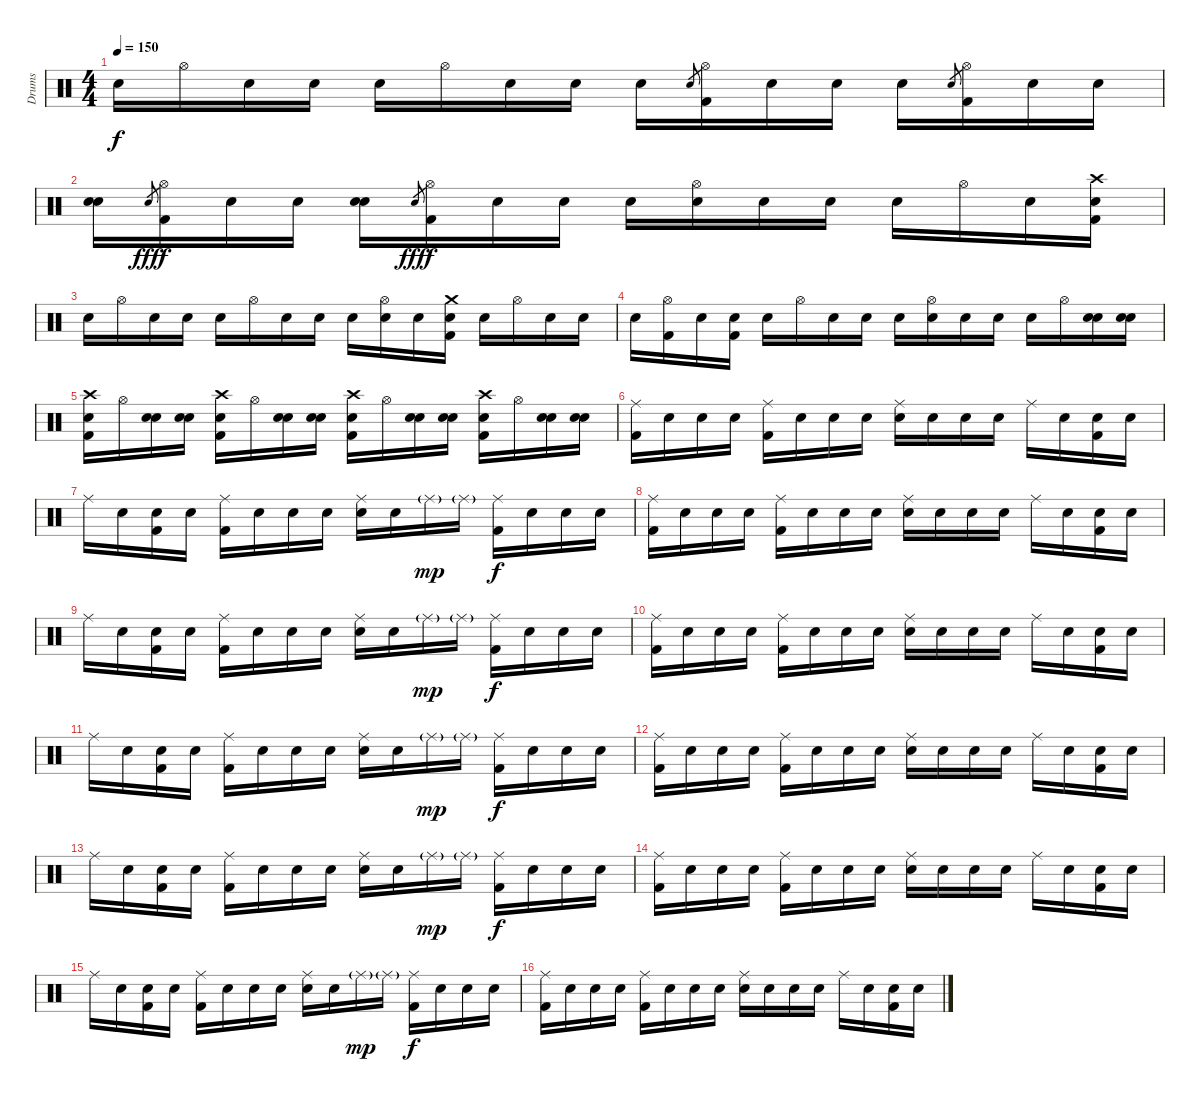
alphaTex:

\track ("Drums" "Drums") {instrument percussion}
\staff {score}
\articulation defaults
\ts (4 4)
\tempo 150
\clef neutral
\ks c "Snare (hit)".16{dy f} "Hi-Hat (open)".16 "Snare (hit)".16 "Snare (hit)".16 "Snare (hit)".16 "Hi-Hat (open)".16 "Snare (hit)".16 "Snare (hit)".16 "Snare (hit)".16 "Electric Snare (hit)".8{gr}
("Hi-Hat (open)" "Kick (hit) 2").16 "Snare (hit)".16 "Snare (hit)".16 "Snare (hit)".16 "Electric Snare (hit)".8{gr} ("Hi-Hat (open)" "Kick (hit) 2").16 "Snare (hit)".16 "Snare (hit)".16 |
("Snare (hit)" "Electric Snare (hit)").16 "Electric Snare (hit)".8{gr dy fff} ("Hi-Hat (open)" "Kick (hit) 2").16{dy f} "Snare (hit)".16 "Snare (hit)".16 ("Snare (hit)" "Electric Snare (hit)").16 "Electric Snare (hit)".8{gr dy fff} ("Hi-Hat (open)" "Kick (hit) 2").16{dy f} "Snare (hit)".16 "Snare (hit)".16 "Snare (hit)".16 ("Hi-Hat (open)" "Electric Snare (hit)").16 "Snare (hit)".16 "Snare (hit)".16 "Snare (hit)".16 "Hi-Hat (open)".16 "Snare (hit)".16 ("Snare (hit)" "Crash high (hit)" "Kick (hit) 2").16 |
"Snare (hit)".16 "Hi-Hat (open)".16 "Snare (hit)".16 "Snare (hit)".16 "Snare (hit)".16 "Hi-Hat (open)".16 "Snare (hit)".16 "Snare (hit)".16 "Snare (hit)".16 ("Hi-Hat (open)" "Electric Snare (hit)").16 "Snare (hit)".16 ("Snare (hit)" "Crash medium (hit)" "Kick (hit) 2").16 "Snare (hit)".16 "Hi-Hat (open)".16 "Snare (hit)".16 "Snare (hit)".16 |
"Snare (hit)".16 ("Hi-Hat (open)" "Kick (hit) 2").16 "Snare (hit)".16 ("Snare (hit)" "Kick (hit) 2").16 "Snare (hit)".16 "Hi-Hat (open)".16 "Snare (hit)".16 "Snare (hit)".16 "Snare (hit)".16 ("Hi-Hat (open)" "Electric Snare (hit)").16 "Snare (hit)".16 "Snare (hit)".16 "Snare (hit)".16 "Hi-Hat (open)".16 ("Snare (hit)" "Electric Snare (hit)").16 ("Snare (hit)" "Electric Snare (hit)").16 |
("Snare (hit)" "Crash high (hit)" "Kick (hit) 2").16 "Hi-Hat (open)".16 ("Snare (hit)" "Electric Snare (hit)").16 ("Snare (hit)" "Electric Snare (hit)").16 ("Snare (hit)" "Crash high (hit)" "Kick (hit) 2").16 "Hi-Hat (open)".16 ("Snare (hit)" "Electric Snare (hit)").16 ("Snare (hit)" "Electric Snare (hit)").16 ("Snare (hit)" "Crash high (hit)" "Kick (hit) 2").16 "Hi-Hat (open)".16 ("Snare (hit)" "Electric Snare (hit)").16 ("Snare (hit)" "Electric Snare (hit)").16 ("Snare (hit)" "Crash high (hit)" "Kick (hit) 2").16 "Hi-Hat (open)".16 ("Snare (hit)" "Electric Snare (hit)").16 ("Snare (hit)" "Electric Snare (hit)").16 |
("Ride (middle)" "Kick (hit) 2").16 "Snare (hit)".16 "Snare (hit)".16 "Snare (hit)".16 ("Ride (middle)" "Kick (hit) 2").16 "Snare (hit)".16 "Snare (hit)".16 "Snare (hit)".16 ("Ride (middle)" "Electric Snare (hit)").16 "Snare (hit)".16 "Snare (hit)".16 "Snare (hit)".16 "Ride (middle)".16 "Snare (hit)".16 ("Snare (hit)" "Kick (hit) 2").16 "Snare (hit)".16 |
"Ride (middle)".16 "Snare (hit)".16 ("Snare (hit)" "Kick (hit) 2").16 "Snare (hit)".16 ("Ride (middle)" "Kick (hit) 2").16 "Snare (hit)".16 "Snare (hit)".16 "Snare (hit)".16 ("Ride (middle)" "Electric Snare (hit)").16 "Snare (hit)".16 "Ride (middle)"{g}.16{dy mp} "Ride (middle)"{g}.16 ("Ride (middle)" "Kick (hit) 2").16{dy f} "Snare (hit)".16 "Snare (hit)".16 "Snare (hit)".16 |
("Ride (middle)" "Kick (hit) 2").16 "Snare (hit)".16 "Snare (hit)".16 "Snare (hit)".16 ("Ride (middle)" "Kick (hit) 2").16 "Snare (hit)".16 "Snare (hit)".16 "Snare (hit)".16 ("Ride (middle)" "Electric Snare (hit)").16 "Snare (hit)".16 "Snare (hit)".16 "Snare (hit)".16 "Ride (middle)".16 "Snare (hit)".16 ("Snare (hit)" "Kick (hit) 2").16 "Snare (hit)".16 |
"Ride (middle)".16 "Snare (hit)".16 ("Snare (hit)" "Kick (hit) 2").16 "Snare (hit)".16 ("Ride (middle)" "Kick (hit) 2").16 "Snare (hit)".16 "Snare (hit)".16 "Snare (hit)".16 ("Ride (middle)" "Electric Snare (hit)").16 "Snare (hit)".16 "Ride (middle)"{g}.16{dy mp} "Ride (middle)"{g}.16 ("Ride (middle)" "Kick (hit) 2").16{dy f} "Snare (hit)".16 "Snare (hit)".16 "Snare (hit)".16 |
("Ride (middle)" "Kick (hit) 2").16 "Snare (hit)".16 "Snare (hit)".16 "Snare (hit)".16 ("Ride (middle)" "Kick (hit) 2").16 "Snare (hit)".16 "Snare (hit)".16 "Snare (hit)".16 ("Ride (middle)" "Electric Snare (hit)").16 "Snare (hit)".16 "Snare (hit)".16 "Snare (hit)".16 "Ride (middle)".16 "Snare (hit)".16 ("Snare (hit)" "Kick (hit) 2").16 "Snare (hit)".16 |
"Ride (middle)".16 "Snare (hit)".16 ("Snare (hit)" "Kick (hit) 2").16 "Snare (hit)".16 ("Ride (middle)" "Kick (hit) 2").16 "Snare (hit)".16 "Snare (hit)".16 "Snare (hit)".16 ("Ride (middle)" "Electric Snare (hit)").16 "Snare (hit)".16 "Ride (middle)"{g}.16{dy mp} "Ride (middle)"{g}.16 ("Ride (middle)" "Kick (hit) 2").16{dy f} "Snare (hit)".16 "Snare (hit)".16 "Snare (hit)".16 |
("Ride (middle)" "Kick (hit) 2").16 "Snare (hit)".16 "Snare (hit)".16 "Snare (hit)".16 ("Ride (middle)" "Kick (hit) 2").16 "Snare (hit)".16 "Snare (hit)".16 "Snare (hit)".16 ("Ride (middle)" "Electric Snare (hit)").16 "Snare (hit)".16 "Snare (hit)".16 "Snare (hit)".16 "Ride (middle)".16 "Snare (hit)".16 ("Snare (hit)" "Kick (hit) 2").16 "Snare (hit)".16 |
"Ride (middle)".16 "Snare (hit)".16 ("Snare (hit)" "Kick (hit) 2").16 "Snare (hit)".16 ("Ride (middle)" "Kick (hit) 2").16 "Snare (hit)".16 "Snare (hit)".16 "Snare (hit)".16 ("Ride (middle)" "Electric Snare (hit)").16 "Snare (hit)".16 "Ride (middle)"{g}.16{dy mp} "Ride (middle)"{g}.16 ("Ride (middle)" "Kick (hit) 2").16{dy f} "Snare (hit)".16 "Snare (hit)".16 "Snare (hit)".16 |
("Ride (middle)" "Kick (hit) 2").16 "Snare (hit)".16 "Snare (hit)".16 "Snare (hit)".16 ("Ride (middle)" "Kick (hit) 2").16 "Snare (hit)".16 "Snare (hit)".16 "Snare (hit)".16 ("Ride (middle)" "Electric Snare (hit)").16 "Snare (hit)".16 "Snare (hit)".16 "Snare (hit)".16 "Ride (middle)".16 "Snare (hit)".16 ("Snare (hit)" "Kick (hit) 2").16 "Snare (hit)".16 |
"Ride (middle)".16 "Snare (hit)".16 ("Snare (hit)" "Kick (hit) 2").16 "Snare (hit)".16 ("Ride (middle)" "Kick (hit) 2").16 "Snare (hit)".16 "Snare (hit)".16 "Snare (hit)".16 ("Ride (middle)" "Electric Snare (hit)").16 "Snare (hit)".16 "Ride (middle)"{g}.16{dy mp} "Ride (middle)"{g}.16 ("Ride (middle)" "Kick (hit) 2").16{dy f} "Snare (hit)".16 "Snare (hit)".16 "Snare (hit)".16 |
("Ride (middle)" "Kick (hit) 2").16 "Snare (hit)".16 "Snare (hit)".16 "Snare (hit)".16 ("Ride (middle)" "Kick (hit) 2").16 "Snare (hit)".16 "Snare (hit)".16 "Snare (hit)".16 ("Ride (middle)" "Electric Snare (hit)").16 "Snare (hit)".16 "Snare (hit)".16 "Snare (hit)".16 "Ride (middle)".16 "Snare (hit)".16 ("Snare (hit)" "Kick (hit) 2").16 "Snare (hit)".16
